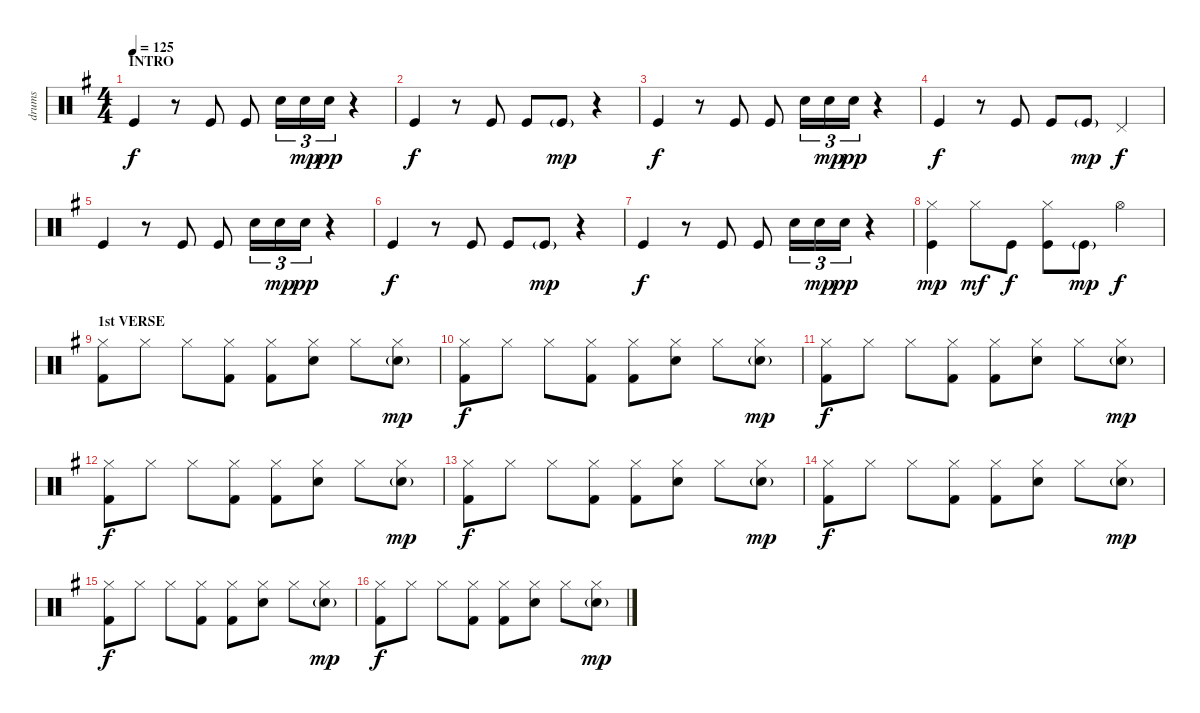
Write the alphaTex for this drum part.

\track ("drums" "drums") {instrument percussion}
\staff {score}
\articulation defaults
\ts (4 4)
\section ("" "INTRO")
\tempo 125
\clef neutral
\ks eminor "Kick (hit)".4{dy f}
r.8 "Kick (hit)".8 "Kick (hit)".8 "Snare (hit) 2".16{tu (3 2)} "Snare (hit) 2".16{tu (3 2) dy mp} "Snare (hit) 2".16{tu (3 2) dy pp} r.4 |
"Kick (hit)".4{dy f} r.8 "Kick (hit)".8 "Kick (hit)".8 "Kick (hit)"{g}.8{dy mp} r.4 |
"Kick (hit)".4{dy f} r.8 "Kick (hit)".8 "Kick (hit)".8 "Snare (hit) 2".16{tu (3 2)} "Snare (hit) 2".16{tu (3 2) dy mp} "Snare (hit) 2".16{tu (3 2) dy pp} r.4 |
"Kick (hit)".4{dy f} r.8 "Kick (hit)".8 "Kick (hit)".8 "Kick (hit)"{g}.8{dy mp} "Pedal Hi-Hat (hit)".4{dy f} |
"Kick (hit)".4 r.8 "Kick (hit)".8 "Kick (hit)".8 "Snare (hit) 2".16{tu (3 2)} "Snare (hit) 2".16{tu (3 2) dy mp} "Snare (hit) 2".16{tu (3 2) dy pp} r.4 |
"Kick (hit)".4{dy f} r.8 "Kick (hit)".8 "Kick (hit)".8 "Kick (hit)"{g}.8{dy mp} r.4 |
"Kick (hit)".4{dy f} r.8 "Kick (hit)".8 "Kick (hit)".8 "Snare (hit) 2".16{tu (3 2)} "Snare (hit) 2".16{tu (3 2) dy mp} "Snare (hit) 2".16{tu (3 2) dy pp} r.4 |
("Hi-Hat (closed)" "Kick (hit)").4{dy mp} "Hi-Hat (closed)".8{dy mf} "Kick (hit)".8{dy f} ("Hi-Hat (closed)" "Kick (hit)").8 "Kick (hit)"{g}.8{dy mp} "Hi-Hat (open)".4{dy f} |
\section ("" "1st VERSE")
("Hi-Hat (closed)" "Kick (hit) 2").8 "Hi-Hat (closed)".8 "Hi-Hat (closed)".8 ("Hi-Hat (closed)" "Kick (hit) 2").8 ("Hi-Hat (closed)" "Kick (hit) 2").8 ("Hi-Hat (closed)" "Snare (hit) 2").8 "Hi-Hat (closed)".8 ("Hi-Hat (closed)" "Snare (hit) 2"{g}).8{dy mp} |
("Hi-Hat (closed)" "Kick (hit) 2").8{dy f} "Hi-Hat (closed)".8 "Hi-Hat (closed)".8 ("Hi-Hat (closed)" "Kick (hit) 2").8 ("Hi-Hat (closed)" "Kick (hit) 2").8 ("Hi-Hat (closed)" "Snare (hit) 2").8 "Hi-Hat (closed)".8 ("Hi-Hat (closed)" "Snare (hit) 2"{g}).8{dy mp} |
("Hi-Hat (closed)" "Kick (hit) 2").8{dy f} "Hi-Hat (closed)".8 "Hi-Hat (closed)".8 ("Hi-Hat (closed)" "Kick (hit) 2").8 ("Hi-Hat (closed)" "Kick (hit) 2").8 ("Hi-Hat (closed)" "Snare (hit) 2").8 "Hi-Hat (closed)".8 ("Hi-Hat (closed)" "Snare (hit) 2"{g}).8{dy mp} |
("Hi-Hat (closed)" "Kick (hit) 2").8{dy f} "Hi-Hat (closed)".8 "Hi-Hat (closed)".8 ("Hi-Hat (closed)" "Kick (hit) 2").8 ("Hi-Hat (closed)" "Kick (hit) 2").8 ("Hi-Hat (closed)" "Snare (hit) 2").8 "Hi-Hat (closed)".8 ("Hi-Hat (closed)" "Snare (hit) 2"{g}).8{dy mp} |
("Hi-Hat (closed)" "Kick (hit) 2").8{dy f} "Hi-Hat (closed)".8 "Hi-Hat (closed)".8 ("Hi-Hat (closed)" "Kick (hit) 2").8 ("Hi-Hat (closed)" "Kick (hit) 2").8 ("Hi-Hat (closed)" "Snare (hit) 2").8 "Hi-Hat (closed)".8 ("Hi-Hat (closed)" "Snare (hit) 2"{g}).8{dy mp} |
("Hi-Hat (closed)" "Kick (hit) 2").8{dy f} "Hi-Hat (closed)".8 "Hi-Hat (closed)".8 ("Hi-Hat (closed)" "Kick (hit) 2").8 ("Hi-Hat (closed)" "Kick (hit) 2").8 ("Hi-Hat (closed)" "Snare (hit) 2").8 "Hi-Hat (closed)".8 ("Hi-Hat (closed)" "Snare (hit) 2"{g}).8{dy mp} |
("Hi-Hat (closed)" "Kick (hit) 2").8{dy f} "Hi-Hat (closed)".8 "Hi-Hat (closed)".8 ("Hi-Hat (closed)" "Kick (hit) 2").8 ("Hi-Hat (closed)" "Kick (hit) 2").8 ("Hi-Hat (closed)" "Snare (hit) 2").8 "Hi-Hat (closed)".8 ("Hi-Hat (closed)" "Snare (hit) 2"{g}).8{dy mp} |
("Hi-Hat (closed)" "Kick (hit) 2").8{dy f} "Hi-Hat (closed)".8 "Hi-Hat (closed)".8 ("Hi-Hat (closed)" "Kick (hit) 2").8 ("Hi-Hat (closed)" "Kick (hit) 2").8 ("Hi-Hat (closed)" "Snare (hit) 2").8 "Hi-Hat (closed)".8 ("Hi-Hat (closed)" "Snare (hit) 2"{g}).8{dy mp}
